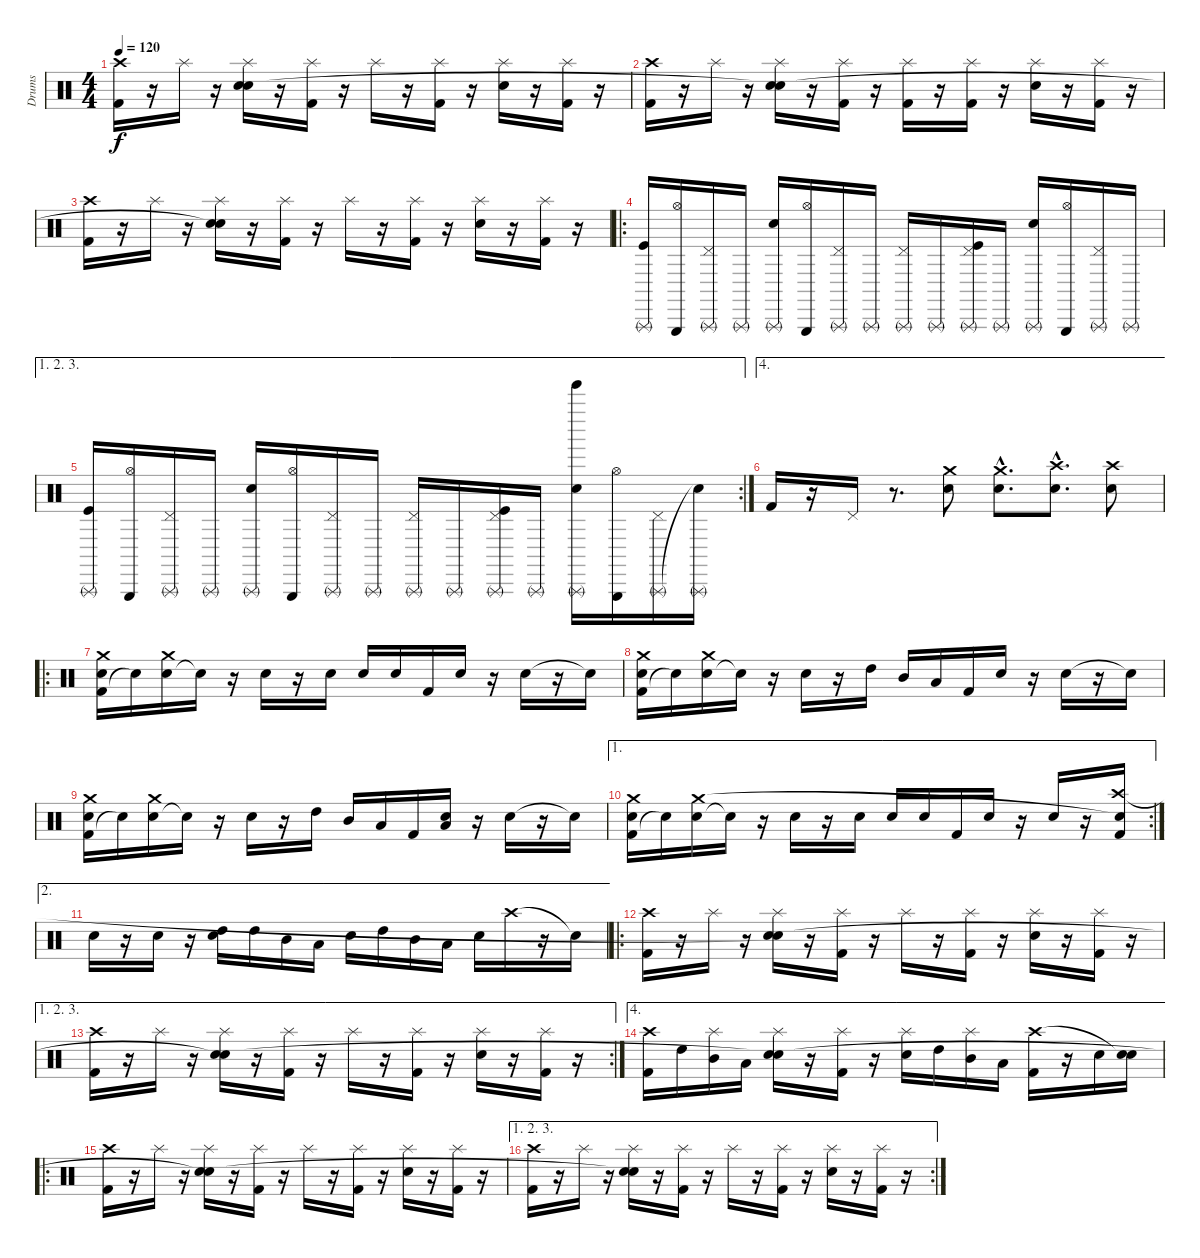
\track ("Drums" "Drums") {instrument percussion}
\staff {score}
\articulation defaults
\ts (4 4)
\tempo 120
\clef neutral
\ks c
("Kick (hit) 2" "Crash high (hit)").16{dy f} r.16 "Splash (hit)".16 r.16 ("Snare (hit) 2" "Splash (hit)" "Snare (hit)"{t}).16 r.16 ("Kick (hit) 2" "Splash (hit)").16 r.16 "Splash (hit)".16 r.16 ("Kick (hit) 2" "Splash (hit)").16 r.16 ("Snare (hit) 2" "Splash (hit)").16 r.16 ("Kick (hit) 2" "Splash (hit)").16 r.16 |
("Kick (hit) 2" "Crash high (hit)").16 r.16 "Splash (hit)".16 r.16 ("Snare (hit) 2" "Splash (hit)" "Snare (hit)"{t}).16 r.16 ("Kick (hit) 2" "Splash (hit)").16 r.16 ("Kick (hit) 2" "Splash (hit)").16 r.16 ("Kick (hit) 2" "Splash (hit)").16 r.16 ("Snare (hit) 2" "Splash (hit)").16 r.16 ("Kick (hit) 2" "Splash (hit)").16 r.16 |
("Kick (hit) 2" "Crash high (hit)").16 r.16 "Splash (hit)".16 r.16 ("Snare (hit) 2" "Splash (hit)" "Snare (hit)"{t}).16 r.16 ("Kick (hit) 2" "Splash (hit)").16 r.16 "Splash (hit)".16 r.16 ("Kick (hit) 2" "Splash (hit)").16 r.16 ("Snare (hit) 2" "Splash (hit)").16 r.16 ("Kick (hit) 2" "Splash (hit)").16 r.16 |
\ro
("Kick (hit)" "Triangle (rnute)").16{volume 13} ("Hi-Hat (open)" "Triangle (hit)").16 ("Pedal Hi-Hat (hit)" "Triangle (rnute)").16 "Triangle (rnute)".16 ("Snare (hit) 2" "Triangle (rnute)").16 ("Hi-Hat (open)" "Triangle (hit)").16 ("Pedal Hi-Hat (hit)" "Triangle (rnute)").16 "Triangle (rnute)".16 ("Pedal Hi-Hat (hit)" "Triangle (rnute)").16 "Triangle (rnute)".16 ("Kick (hit)" "Pedal Hi-Hat (hit)" "Triangle (rnute)").16 "Triangle (rnute)".16 ("Snare (hit) 2" "Triangle (rnute)").16 ("Hi-Hat (open)" "Triangle (hit)").16 ("Pedal Hi-Hat (hit)" "Triangle (rnute)").16 "Triangle (rnute)".16 |
\ae (1 2 3)
\rc 2
("Kick (hit)" "Triangle (rnute)").16 ("Hi-Hat (open)" "Triangle (hit)").16 ("Pedal Hi-Hat (hit)" "Triangle (rnute)").16 "Triangle (rnute)".16 ("Snare (hit) 2" "Triangle (rnute)").16 ("Hi-Hat (open)" "Triangle (hit)").16 ("Pedal Hi-Hat (hit)" "Triangle (rnute)").16 "Triangle (rnute)".16 ("Pedal Hi-Hat (hit)" "Triangle (rnute)").16 "Triangle (rnute)".16 ("Kick (hit)" "Pedal Hi-Hat (hit)" "Triangle (rnute)").16 "Triangle (rnute)".16 ("Snare (hit) 2" "Triangle (rnute)" "Tinkle Bell (hit)").16 ("Hi-Hat (open)" "Triangle (hit)").16 ("Pedal Hi-Hat (hit)" "Triangle (rnute)").16 ("Triangle (rnute)" "Snare (hit)"{t}).16 |
\ae 4 "Kick (hit) 2".16
r.16 "Pedal Hi-Hat (hit)".16 r.8{d} ("Snare (hit) 2" "Crash medium (hit)").8{volume 13} ("Snare (hit) 2"{hac} "Crash medium (hit)"{hac}).8{d} ("Snare (hit) 2"{hac} "Crash high (hit)"{hac}).8{d} ("Snare (hit) 2" "Crash high (hit)").8 |
\ro
("Kick (hit) 2" "Snare (hit) 2" "Crash medium (hit)").16 "Snare (hit)"{t}.16 ("Snare (hit) 2" "Crash medium (hit)").16 "Snare (hit)"{t}.16 r.16 "Snare (hit) 2".16 r.16 "Snare (hit) 2".16 "Snare (hit) 2".16 "Snare (hit) 2".16 "Kick (hit) 2".16 "Snare (hit) 2".16 r.16 "Snare (hit) 2".16 r.16 "Snare (hit)"{t}.16 |
("Kick (hit) 2" "Snare (hit) 2" "Crash medium (hit)").16 "Snare (hit)"{t}.16 ("Snare (hit) 2" "Crash medium (hit)").16 "Snare (hit)"{t}.16 r.16 "Snare (hit) 2".16 r.16 "High Tom (hit)".16 "Mid Tom (hit)".16 "Low Tom (hit)".16 "Kick (hit) 2".16 "Snare (hit) 2".16 r.16 "Snare (hit) 2".16 r.16 "Snare (hit)"{t}.16 |
("Kick (hit) 2" "Snare (hit) 2" "Crash medium (hit)").16 "Snare (hit)"{t}.16 ("Snare (hit) 2" "Crash medium (hit)").16 "Snare (hit)"{t}.16 r.16 "Snare (hit) 2".16 r.16 "High Tom (hit)".16 "Mid Tom (hit)".16 "Low Tom (hit)".16 "Kick (hit) 2".16 ("Snare (hit) 2" "Low Tom (hit)").16 r.16 "Snare (hit) 2".16 r.16 "Snare (hit)"{t}.16 |
\ae 1
\rc 2
("Kick (hit) 2" "Snare (hit) 2" "Crash medium (hit)").16 "Snare (hit)"{t}.16 ("Snare (hit) 2" "Crash medium (hit)").16 "Snare (hit)"{t}.16 r.16 "Snare (hit) 2".16 r.16 "Snare (hit) 2".16 "Snare (hit) 2".16 "Snare (hit) 2".16 "Kick (hit) 2".16 "Snare (hit) 2".16 r.16 "Snare (hit) 2".16 r.16 ("Kick (hit) 2" "Snare (hit)"{t} "Crash high (hit)").16 |
\ae 2 "Snare (hit) 2".16
r.16 "Snare (hit) 2".16 r.16 ("Snare (hit) 2" "High Tom (hit)").16 "High Tom (hit)".16 "Mid Tom (hit)".16 "Low Tom (hit)".16 "Snare (hit) 2".16 "High Tom (hit)".16 "Mid Tom (hit)".16 "Low Tom (hit)".16 "Snare (hit) 2".16 "Crash high (hit)".16 r.16 "Snare (hit)"{t}.16 |
\ro
("Kick (hit) 2" "Crash high (hit)").16 r.16 "Splash (hit)".16 r.16 ("Snare (hit) 2" "Splash (hit)" "Snare (hit)"{t}).16 r.16 ("Kick (hit) 2" "Splash (hit)").16 r.16 "Splash (hit)".16 r.16 ("Kick (hit) 2" "Splash (hit)").16 r.16 ("Snare (hit) 2" "Splash (hit)").16 r.16 ("Kick (hit) 2" "Splash (hit)").16 r.16 |
\ae (1 2 3)
\rc 2
("Kick (hit) 2" "Crash high (hit)").16 r.16 "Splash (hit)".16 r.16 ("Snare (hit) 2" "Splash (hit)" "Snare (hit)"{t}).16 r.16 ("Kick (hit) 2" "Splash (hit)").16 r.16 "Splash (hit)".16 r.16 ("Kick (hit) 2" "Splash (hit)").16 r.16 ("Snare (hit) 2" "Splash (hit)").16 r.16 ("Kick (hit) 2" "Splash (hit)").16 r.16 |
\ae 4
("Kick (hit) 2" "Crash high (hit)").16 "High Tom (hit)".16 ("Mid Tom (hit)" "Splash (hit)").16 "Low Tom (hit)".16 ("Snare (hit) 2" "Splash (hit)" "Snare (hit)"{t}).16 r.16 ("Kick (hit) 2" "Splash (hit)").16 r.16 ("Snare (hit) 2" "Splash (hit)").16 "High Tom (hit)".16 ("Mid Tom (hit)" "Splash (hit)").16 "Low Tom (hit)".16 ("Kick (hit) 2" "Crash high (hit)").16 r.16 "Snare (hit) 2".16 ("Snare (hit) 2" "Snare (hit)"{t}).16 |
\ro
("Kick (hit) 2" "Crash high (hit)").16 r.16 "Splash (hit)".16 r.16 ("Snare (hit) 2" "Splash (hit)" "Snare (hit)"{t}).16 r.16 ("Kick (hit) 2" "Splash (hit)").16 r.16 "Splash (hit)".16 r.16 ("Kick (hit) 2" "Splash (hit)").16 r.16 ("Snare (hit) 2" "Splash (hit)").16 r.16 ("Kick (hit) 2" "Splash (hit)").16 r.16 |
\ae (1 2 3)
\rc 2
("Kick (hit) 2" "Crash high (hit)").16 r.16 "Splash (hit)".16 r.16 ("Snare (hit) 2" "Splash (hit)" "Snare (hit)"{t}).16 r.16 ("Kick (hit) 2" "Splash (hit)").16 r.16 "Splash (hit)".16 r.16 ("Kick (hit) 2" "Splash (hit)").16 r.16 ("Snare (hit) 2" "Splash (hit)").16 r.16 ("Kick (hit) 2" "Splash (hit)").16 r.16
